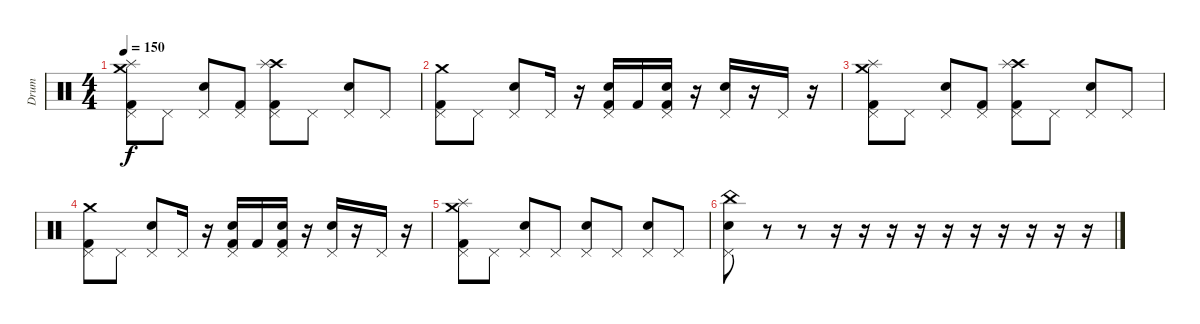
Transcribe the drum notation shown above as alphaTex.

\track ("Drum" "Drum") {instrument percussion}
\staff {score}
\articulation defaults
\ts (4 4)
\tempo 150
\clef neutral
\ks c
("Crash medium (hit)" "Splash (hit)" "Kick (hit) 2" "Pedal Hi-Hat (hit)").8{dy f} "Pedal Hi-Hat (hit)".8 ("Electric Snare (hit)" "Pedal Hi-Hat (hit)").8 ("Kick (hit) 2" "Pedal Hi-Hat (hit)").8 ("Crash high (hit)" "Splash (hit)" "Kick (hit) 2" "Pedal Hi-Hat (hit)").8 "Pedal Hi-Hat (hit)".8 ("Electric Snare (hit)" "Pedal Hi-Hat (hit)").8 "Pedal Hi-Hat (hit)".8 |
("Crash medium (hit)" "Kick (hit) 2" "Pedal Hi-Hat (hit)").8 "Pedal Hi-Hat (hit)".8 ("Electric Snare (hit)" "Pedal Hi-Hat (hit)").8 "Pedal Hi-Hat (hit)".16 r.16 ("Snare (hit) 2" "Kick (hit) 2" "Pedal Hi-Hat (hit)").16 "Kick (hit) 2".16 ("Snare (hit) 2" "Kick (hit) 2" "Pedal Hi-Hat (hit)").16 r.16 ("Electric Snare (hit)" "Pedal Hi-Hat (hit)").16 r.16 "Pedal Hi-Hat (hit)".16 r.16 |
("Crash medium (hit)" "Splash (hit)" "Kick (hit) 2" "Pedal Hi-Hat (hit)").8 "Pedal Hi-Hat (hit)".8 ("Electric Snare (hit)" "Pedal Hi-Hat (hit)").8 ("Kick (hit) 2" "Pedal Hi-Hat (hit)").8 ("Crash high (hit)" "Splash (hit)" "Kick (hit) 2" "Pedal Hi-Hat (hit)").8 "Pedal Hi-Hat (hit)".8 ("Electric Snare (hit)" "Pedal Hi-Hat (hit)").8 "Pedal Hi-Hat (hit)".8 |
("Crash medium (hit)" "Kick (hit) 2" "Pedal Hi-Hat (hit)").8 "Pedal Hi-Hat (hit)".8 ("Electric Snare (hit)" "Pedal Hi-Hat (hit)").8 "Pedal Hi-Hat (hit)".16 r.16 ("Snare (hit) 2" "Kick (hit) 2" "Pedal Hi-Hat (hit)").16 "Kick (hit) 2".16 ("Snare (hit) 2" "Kick (hit) 2" "Pedal Hi-Hat (hit)").16 r.16 ("Electric Snare (hit)" "Pedal Hi-Hat (hit)").16 r.16 "Pedal Hi-Hat (hit)".16 r.16 |
("Crash medium (hit)" "Splash (hit)" "Kick (hit) 2" "Pedal Hi-Hat (hit)").8 "Pedal Hi-Hat (hit)".8 ("Electric Snare (hit)" "Pedal Hi-Hat (hit)").8 "Pedal Hi-Hat (hit)".8 ("Electric Snare (hit)" "Pedal Hi-Hat (hit)").8 "Pedal Hi-Hat (hit)".8 ("Electric Snare (hit)" "Pedal Hi-Hat (hit)").8 "Pedal Hi-Hat (hit)".8 |
("China (hit)" "Electric Snare (hit)" "Pedal Hi-Hat (hit)").8 r.8 r.8 r.16 r.16 r.16 r.16 r.16 r.16 r.16 r.16 r.16 r.16
